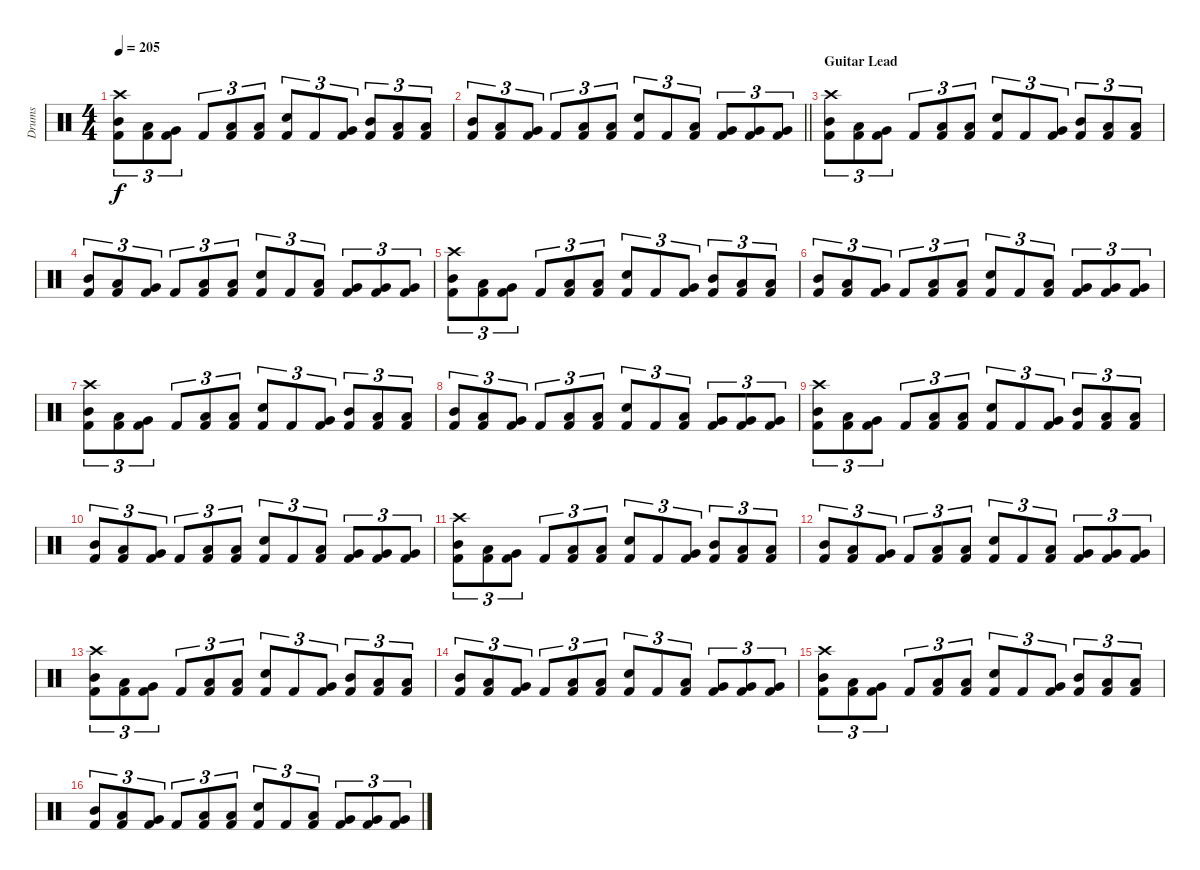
\track ("Drums" "Drums") {instrument percussion}
\staff {score}
\articulation defaults
\ts (4 4)
\tempo 205
\clef neutral
\ks c
("Crash high (hit)" "Mid Tom (hit)" "Kick (hit) 2").8{tu (3 2) dy f} ("Low Tom (hit)" "Kick (hit) 2").8{tu (3 2)} ("Very Low Tom (hit)" "Kick (hit) 2").8{tu (3 2)} "Kick (hit) 2".8{tu (3 2)} ("Low Floor Tom (hit)" "Kick (hit) 2").8{tu (3 2)} ("Low Floor Tom (hit)" "Kick (hit) 2").8{tu (3 2)} ("Snare (hit) 2" "Kick (hit) 2").8{tu (3 2)} "Kick (hit) 2".8{tu (3 2)} ("Very Low Tom (hit)" "Kick (hit) 2").8{tu (3 2)} ("Mid Tom (hit)" "Kick (hit) 2").8{tu (3 2)} ("Low Floor Tom (hit)" "Kick (hit) 2").8{tu (3 2)} ("Low Tom (hit)" "Kick (hit) 2").8{tu (3 2)} |
\barLineRight lightlight
("Mid Tom (hit)" "Kick (hit) 2").8{tu (3 2)} ("Low Tom (hit)" "Kick (hit) 2").8{tu (3 2)} ("Very Low Tom (hit)" "Kick (hit) 2").8{tu (3 2)} "Kick (hit) 2".8{tu (3 2)} ("Low Floor Tom (hit)" "Kick (hit) 2").8{tu (3 2)} ("Low Floor Tom (hit)" "Kick (hit) 2").8{tu (3 2)} ("Snare (hit) 2" "Kick (hit) 2").8{tu (3 2)} "Kick (hit) 2".8{tu (3 2)} ("Low Floor Tom (hit)" "Kick (hit) 2").8{tu (3 2)} ("Very Low Tom (hit)" "Kick (hit) 2").8{tu (3 2)} ("Very Low Tom (hit)" "Kick (hit) 2").8{tu (3 2)} ("Very Low Tom (hit)" "Kick (hit) 2").8{tu (3 2)} |
\section ("" "Guitar Lead")
("Crash high (hit)" "Mid Tom (hit)" "Kick (hit) 2").8{tu (3 2)} ("Low Tom (hit)" "Kick (hit) 2").8{tu (3 2)} ("Very Low Tom (hit)" "Kick (hit) 2").8{tu (3 2)} "Kick (hit) 2".8{tu (3 2)} ("Low Floor Tom (hit)" "Kick (hit) 2").8{tu (3 2)} ("Low Floor Tom (hit)" "Kick (hit) 2").8{tu (3 2)} ("Snare (hit) 2" "Kick (hit) 2").8{tu (3 2)} "Kick (hit) 2".8{tu (3 2)} ("Very Low Tom (hit)" "Kick (hit) 2").8{tu (3 2)} ("Mid Tom (hit)" "Kick (hit) 2").8{tu (3 2)} ("Low Floor Tom (hit)" "Kick (hit) 2").8{tu (3 2)} ("Low Tom (hit)" "Kick (hit) 2").8{tu (3 2)} |
("Mid Tom (hit)" "Kick (hit) 2").8{tu (3 2)} ("Low Tom (hit)" "Kick (hit) 2").8{tu (3 2)} ("Very Low Tom (hit)" "Kick (hit) 2").8{tu (3 2)} "Kick (hit) 2".8{tu (3 2)} ("Low Floor Tom (hit)" "Kick (hit) 2").8{tu (3 2)} ("Low Floor Tom (hit)" "Kick (hit) 2").8{tu (3 2)} ("Snare (hit) 2" "Kick (hit) 2").8{tu (3 2)} "Kick (hit) 2".8{tu (3 2)} ("Low Floor Tom (hit)" "Kick (hit) 2").8{tu (3 2)} ("Very Low Tom (hit)" "Kick (hit) 2").8{tu (3 2)} ("Very Low Tom (hit)" "Kick (hit) 2").8{tu (3 2)} ("Very Low Tom (hit)" "Kick (hit) 2").8{tu (3 2)} |
("Crash high (hit)" "Mid Tom (hit)" "Kick (hit) 2").8{tu (3 2)} ("Low Tom (hit)" "Kick (hit) 2").8{tu (3 2)} ("Very Low Tom (hit)" "Kick (hit) 2").8{tu (3 2)} "Kick (hit) 2".8{tu (3 2)} ("Low Floor Tom (hit)" "Kick (hit) 2").8{tu (3 2)} ("Low Floor Tom (hit)" "Kick (hit) 2").8{tu (3 2)} ("Snare (hit) 2" "Kick (hit) 2").8{tu (3 2)} "Kick (hit) 2".8{tu (3 2)} ("Very Low Tom (hit)" "Kick (hit) 2").8{tu (3 2)} ("Mid Tom (hit)" "Kick (hit) 2").8{tu (3 2)} ("Low Floor Tom (hit)" "Kick (hit) 2").8{tu (3 2)} ("Low Tom (hit)" "Kick (hit) 2").8{tu (3 2)} |
("Mid Tom (hit)" "Kick (hit) 2").8{tu (3 2)} ("Low Tom (hit)" "Kick (hit) 2").8{tu (3 2)} ("Very Low Tom (hit)" "Kick (hit) 2").8{tu (3 2)} "Kick (hit) 2".8{tu (3 2)} ("Low Floor Tom (hit)" "Kick (hit) 2").8{tu (3 2)} ("Low Floor Tom (hit)" "Kick (hit) 2").8{tu (3 2)} ("Snare (hit) 2" "Kick (hit) 2").8{tu (3 2)} "Kick (hit) 2".8{tu (3 2)} ("Low Floor Tom (hit)" "Kick (hit) 2").8{tu (3 2)} ("Very Low Tom (hit)" "Kick (hit) 2").8{tu (3 2)} ("Very Low Tom (hit)" "Kick (hit) 2").8{tu (3 2)} ("Very Low Tom (hit)" "Kick (hit) 2").8{tu (3 2)} |
("Crash high (hit)" "Mid Tom (hit)" "Kick (hit) 2").8{tu (3 2)} ("Low Tom (hit)" "Kick (hit) 2").8{tu (3 2)} ("Very Low Tom (hit)" "Kick (hit) 2").8{tu (3 2)} "Kick (hit) 2".8{tu (3 2)} ("Low Floor Tom (hit)" "Kick (hit) 2").8{tu (3 2)} ("Low Floor Tom (hit)" "Kick (hit) 2").8{tu (3 2)} ("Snare (hit) 2" "Kick (hit) 2").8{tu (3 2)} "Kick (hit) 2".8{tu (3 2)} ("Very Low Tom (hit)" "Kick (hit) 2").8{tu (3 2)} ("Mid Tom (hit)" "Kick (hit) 2").8{tu (3 2)} ("Low Floor Tom (hit)" "Kick (hit) 2").8{tu (3 2)} ("Low Tom (hit)" "Kick (hit) 2").8{tu (3 2)} |
("Mid Tom (hit)" "Kick (hit) 2").8{tu (3 2)} ("Low Tom (hit)" "Kick (hit) 2").8{tu (3 2)} ("Very Low Tom (hit)" "Kick (hit) 2").8{tu (3 2)} "Kick (hit) 2".8{tu (3 2)} ("Low Floor Tom (hit)" "Kick (hit) 2").8{tu (3 2)} ("Low Floor Tom (hit)" "Kick (hit) 2").8{tu (3 2)} ("Snare (hit) 2" "Kick (hit) 2").8{tu (3 2)} "Kick (hit) 2".8{tu (3 2)} ("Low Floor Tom (hit)" "Kick (hit) 2").8{tu (3 2)} ("Very Low Tom (hit)" "Kick (hit) 2").8{tu (3 2)} ("Very Low Tom (hit)" "Kick (hit) 2").8{tu (3 2)} ("Very Low Tom (hit)" "Kick (hit) 2").8{tu (3 2)} |
("Crash high (hit)" "Mid Tom (hit)" "Kick (hit) 2").8{tu (3 2)} ("Low Tom (hit)" "Kick (hit) 2").8{tu (3 2)} ("Very Low Tom (hit)" "Kick (hit) 2").8{tu (3 2)} "Kick (hit) 2".8{tu (3 2)} ("Low Floor Tom (hit)" "Kick (hit) 2").8{tu (3 2)} ("Low Floor Tom (hit)" "Kick (hit) 2").8{tu (3 2)} ("Snare (hit) 2" "Kick (hit) 2").8{tu (3 2)} "Kick (hit) 2".8{tu (3 2)} ("Very Low Tom (hit)" "Kick (hit) 2").8{tu (3 2)} ("Mid Tom (hit)" "Kick (hit) 2").8{tu (3 2)} ("Low Floor Tom (hit)" "Kick (hit) 2").8{tu (3 2)} ("Low Tom (hit)" "Kick (hit) 2").8{tu (3 2)} |
("Mid Tom (hit)" "Kick (hit) 2").8{tu (3 2)} ("Low Tom (hit)" "Kick (hit) 2").8{tu (3 2)} ("Very Low Tom (hit)" "Kick (hit) 2").8{tu (3 2)} "Kick (hit) 2".8{tu (3 2)} ("Low Floor Tom (hit)" "Kick (hit) 2").8{tu (3 2)} ("Low Floor Tom (hit)" "Kick (hit) 2").8{tu (3 2)} ("Snare (hit) 2" "Kick (hit) 2").8{tu (3 2)} "Kick (hit) 2".8{tu (3 2)} ("Low Floor Tom (hit)" "Kick (hit) 2").8{tu (3 2)} ("Very Low Tom (hit)" "Kick (hit) 2").8{tu (3 2)} ("Very Low Tom (hit)" "Kick (hit) 2").8{tu (3 2)} ("Very Low Tom (hit)" "Kick (hit) 2").8{tu (3 2)} |
("Crash high (hit)" "Mid Tom (hit)" "Kick (hit) 2").8{tu (3 2)} ("Low Tom (hit)" "Kick (hit) 2").8{tu (3 2)} ("Very Low Tom (hit)" "Kick (hit) 2").8{tu (3 2)} "Kick (hit) 2".8{tu (3 2)} ("Low Floor Tom (hit)" "Kick (hit) 2").8{tu (3 2)} ("Low Floor Tom (hit)" "Kick (hit) 2").8{tu (3 2)} ("Snare (hit) 2" "Kick (hit) 2").8{tu (3 2)} "Kick (hit) 2".8{tu (3 2)} ("Very Low Tom (hit)" "Kick (hit) 2").8{tu (3 2)} ("Mid Tom (hit)" "Kick (hit) 2").8{tu (3 2)} ("Low Floor Tom (hit)" "Kick (hit) 2").8{tu (3 2)} ("Low Tom (hit)" "Kick (hit) 2").8{tu (3 2)} |
("Mid Tom (hit)" "Kick (hit) 2").8{tu (3 2)} ("Low Tom (hit)" "Kick (hit) 2").8{tu (3 2)} ("Very Low Tom (hit)" "Kick (hit) 2").8{tu (3 2)} "Kick (hit) 2".8{tu (3 2)} ("Low Floor Tom (hit)" "Kick (hit) 2").8{tu (3 2)} ("Low Floor Tom (hit)" "Kick (hit) 2").8{tu (3 2)} ("Snare (hit) 2" "Kick (hit) 2").8{tu (3 2)} "Kick (hit) 2".8{tu (3 2)} ("Low Floor Tom (hit)" "Kick (hit) 2").8{tu (3 2)} ("Very Low Tom (hit)" "Kick (hit) 2").8{tu (3 2)} ("Very Low Tom (hit)" "Kick (hit) 2").8{tu (3 2)} ("Very Low Tom (hit)" "Kick (hit) 2").8{tu (3 2)} |
("Crash high (hit)" "Mid Tom (hit)" "Kick (hit) 2").8{tu (3 2)} ("Low Tom (hit)" "Kick (hit) 2").8{tu (3 2)} ("Very Low Tom (hit)" "Kick (hit) 2").8{tu (3 2)} "Kick (hit) 2".8{tu (3 2)} ("Low Floor Tom (hit)" "Kick (hit) 2").8{tu (3 2)} ("Low Floor Tom (hit)" "Kick (hit) 2").8{tu (3 2)} ("Snare (hit) 2" "Kick (hit) 2").8{tu (3 2)} "Kick (hit) 2".8{tu (3 2)} ("Very Low Tom (hit)" "Kick (hit) 2").8{tu (3 2)} ("Mid Tom (hit)" "Kick (hit) 2").8{tu (3 2)} ("Low Floor Tom (hit)" "Kick (hit) 2").8{tu (3 2)} ("Low Tom (hit)" "Kick (hit) 2").8{tu (3 2)} |
("Mid Tom (hit)" "Kick (hit) 2").8{tu (3 2)} ("Low Tom (hit)" "Kick (hit) 2").8{tu (3 2)} ("Very Low Tom (hit)" "Kick (hit) 2").8{tu (3 2)} "Kick (hit) 2".8{tu (3 2)} ("Low Floor Tom (hit)" "Kick (hit) 2").8{tu (3 2)} ("Low Floor Tom (hit)" "Kick (hit) 2").8{tu (3 2)} ("Snare (hit) 2" "Kick (hit) 2").8{tu (3 2)} "Kick (hit) 2".8{tu (3 2)} ("Low Floor Tom (hit)" "Kick (hit) 2").8{tu (3 2)} ("Very Low Tom (hit)" "Kick (hit) 2").8{tu (3 2)} ("Very Low Tom (hit)" "Kick (hit) 2").8{tu (3 2)} ("Very Low Tom (hit)" "Kick (hit) 2").8{tu (3 2)} |
("Crash high (hit)" "Mid Tom (hit)" "Kick (hit) 2").8{tu (3 2)} ("Low Tom (hit)" "Kick (hit) 2").8{tu (3 2)} ("Very Low Tom (hit)" "Kick (hit) 2").8{tu (3 2)} "Kick (hit) 2".8{tu (3 2)} ("Low Floor Tom (hit)" "Kick (hit) 2").8{tu (3 2)} ("Low Floor Tom (hit)" "Kick (hit) 2").8{tu (3 2)} ("Snare (hit) 2" "Kick (hit) 2").8{tu (3 2)} "Kick (hit) 2".8{tu (3 2)} ("Very Low Tom (hit)" "Kick (hit) 2").8{tu (3 2)} ("Mid Tom (hit)" "Kick (hit) 2").8{tu (3 2)} ("Low Floor Tom (hit)" "Kick (hit) 2").8{tu (3 2)} ("Low Tom (hit)" "Kick (hit) 2").8{tu (3 2)} |
("Mid Tom (hit)" "Kick (hit) 2").8{tu (3 2)} ("Low Tom (hit)" "Kick (hit) 2").8{tu (3 2)} ("Very Low Tom (hit)" "Kick (hit) 2").8{tu (3 2)} "Kick (hit) 2".8{tu (3 2)} ("Low Floor Tom (hit)" "Kick (hit) 2").8{tu (3 2)} ("Low Floor Tom (hit)" "Kick (hit) 2").8{tu (3 2)} ("Snare (hit) 2" "Kick (hit) 2").8{tu (3 2)} "Kick (hit) 2".8{tu (3 2)} ("Low Floor Tom (hit)" "Kick (hit) 2").8{tu (3 2)} ("Very Low Tom (hit)" "Kick (hit) 2").8{tu (3 2)} ("Very Low Tom (hit)" "Kick (hit) 2").8{tu (3 2)} ("Very Low Tom (hit)" "Kick (hit) 2").8{tu (3 2)}
